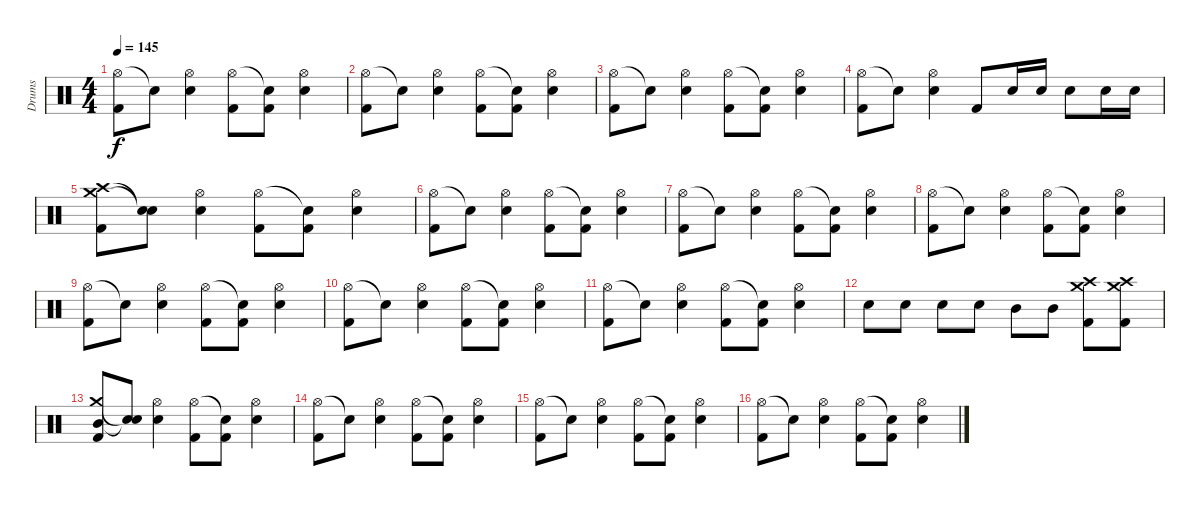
\track ("Drums" "Drums") {instrument percussion}
\staff {score}
\articulation defaults
\ts (4 4)
\tempo 145
\clef neutral
\ks c
("Hi-Hat (open)" "Kick (hit) 2").8{dy f} "Snare (hit)"{t}.8 ("Hi-Hat (open)" "Electric Snare (hit)").4 ("Hi-Hat (open)" "Kick (hit) 2").8 ("Snare (hit)"{t} "Kick (hit) 2").8 ("Hi-Hat (open)" "Electric Snare (hit)").4 |
("Hi-Hat (open)" "Kick (hit) 2").8 "Snare (hit)"{t}.8 ("Hi-Hat (open)" "Electric Snare (hit)").4 ("Hi-Hat (open)" "Kick (hit) 2").8 ("Snare (hit)"{t} "Kick (hit) 2").8 ("Hi-Hat (open)" "Electric Snare (hit)").4 |
("Hi-Hat (open)" "Kick (hit) 2").8 "Snare (hit)"{t}.8 ("Hi-Hat (open)" "Electric Snare (hit)").4 ("Hi-Hat (open)" "Kick (hit) 2").8 ("Snare (hit)"{t} "Kick (hit) 2").8 ("Hi-Hat (open)" "Electric Snare (hit)").4 |
("Hi-Hat (open)" "Kick (hit) 2").8 "Snare (hit)"{t}.8 ("Hi-Hat (open)" "Electric Snare (hit)").4 "Kick (hit) 2".8 "Electric Snare (hit)".16 "Electric Snare (hit)".16 "Electric Snare (hit)".8 "Electric Snare (hit)".16 "Electric Snare (hit)".16 |
("Crash medium (hit)" "Crash high (hit)" "Kick (hit) 2").8 ("Snare (hit)"{t} "Snare (hit)"{t}).8 ("Hi-Hat (open)" "Electric Snare (hit)").4 ("Hi-Hat (open)" "Kick (hit) 2").8 ("Snare (hit)"{t} "Kick (hit) 2").8 ("Hi-Hat (open)" "Electric Snare (hit)").4 |
("Hi-Hat (open)" "Kick (hit) 2").8 "Snare (hit)"{t}.8 ("Hi-Hat (open)" "Electric Snare (hit)").4 ("Hi-Hat (open)" "Kick (hit) 2").8 ("Snare (hit)"{t} "Kick (hit) 2").8 ("Hi-Hat (open)" "Electric Snare (hit)").4 |
("Hi-Hat (open)" "Kick (hit) 2").8 "Snare (hit)"{t}.8 ("Hi-Hat (open)" "Electric Snare (hit)").4 ("Hi-Hat (open)" "Kick (hit) 2").8 ("Snare (hit)"{t} "Kick (hit) 2").8 ("Hi-Hat (open)" "Electric Snare (hit)").4 |
("Hi-Hat (open)" "Kick (hit) 2").8 "Snare (hit)"{t}.8 ("Hi-Hat (open)" "Electric Snare (hit)").4 ("Hi-Hat (open)" "Kick (hit) 2").8 ("Snare (hit)"{t} "Kick (hit) 2").8 ("Hi-Hat (open)" "Electric Snare (hit)").4 |
("Hi-Hat (open)" "Kick (hit) 2").8 "Snare (hit)"{t}.8 ("Hi-Hat (open)" "Electric Snare (hit)").4 ("Hi-Hat (open)" "Kick (hit) 2").8 ("Snare (hit)"{t} "Kick (hit) 2").8 ("Hi-Hat (open)" "Electric Snare (hit)").4 |
("Hi-Hat (open)" "Kick (hit) 2").8 "Snare (hit)"{t}.8 ("Hi-Hat (open)" "Electric Snare (hit)").4 ("Hi-Hat (open)" "Kick (hit) 2").8 ("Snare (hit)"{t} "Kick (hit) 2").8 ("Hi-Hat (open)" "Electric Snare (hit)").4 |
("Hi-Hat (open)" "Kick (hit) 2").8 "Snare (hit)"{t}.8 ("Hi-Hat (open)" "Electric Snare (hit)").4 ("Hi-Hat (open)" "Kick (hit) 2").8 ("Snare (hit)"{t} "Kick (hit) 2").8 ("Hi-Hat (open)" "Electric Snare (hit)").4 |
"Electric Snare (hit)".8 "Electric Snare (hit)".8 "Electric Snare (hit)".8 "Electric Snare (hit)".8 "Mid Tom (hit)".8 "Mid Tom (hit)".8 ("Crash high (hit)" "Crash medium (hit)" "Kick (hit) 2").8 ("Crash high (hit)" "Crash medium (hit)" "Kick (hit) 2").8 |
("Mid Tom (hit)" "Crash medium (hit)" "Kick (hit) 2").8 ("Snare (hit)"{t} "Snare (hit)"{t}).8 ("Hi-Hat (open)" "Electric Snare (hit)").4 ("Hi-Hat (open)" "Kick (hit) 2").8 ("Snare (hit)"{t} "Kick (hit) 2").8 ("Hi-Hat (open)" "Electric Snare (hit)").4 |
("Hi-Hat (open)" "Kick (hit) 2").8 "Snare (hit)"{t}.8 ("Hi-Hat (open)" "Electric Snare (hit)").4 ("Hi-Hat (open)" "Kick (hit) 2").8 ("Snare (hit)"{t} "Kick (hit) 2").8 ("Hi-Hat (open)" "Electric Snare (hit)").4 |
("Hi-Hat (open)" "Kick (hit) 2").8 "Snare (hit)"{t}.8 ("Hi-Hat (open)" "Electric Snare (hit)").4 ("Hi-Hat (open)" "Kick (hit) 2").8 ("Snare (hit)"{t} "Kick (hit) 2").8 ("Hi-Hat (open)" "Electric Snare (hit)").4 |
("Hi-Hat (open)" "Kick (hit) 2").8 "Snare (hit)"{t}.8 ("Hi-Hat (open)" "Electric Snare (hit)").4 ("Hi-Hat (open)" "Kick (hit) 2").8 ("Snare (hit)"{t} "Kick (hit) 2").8 ("Hi-Hat (open)" "Electric Snare (hit)").4
